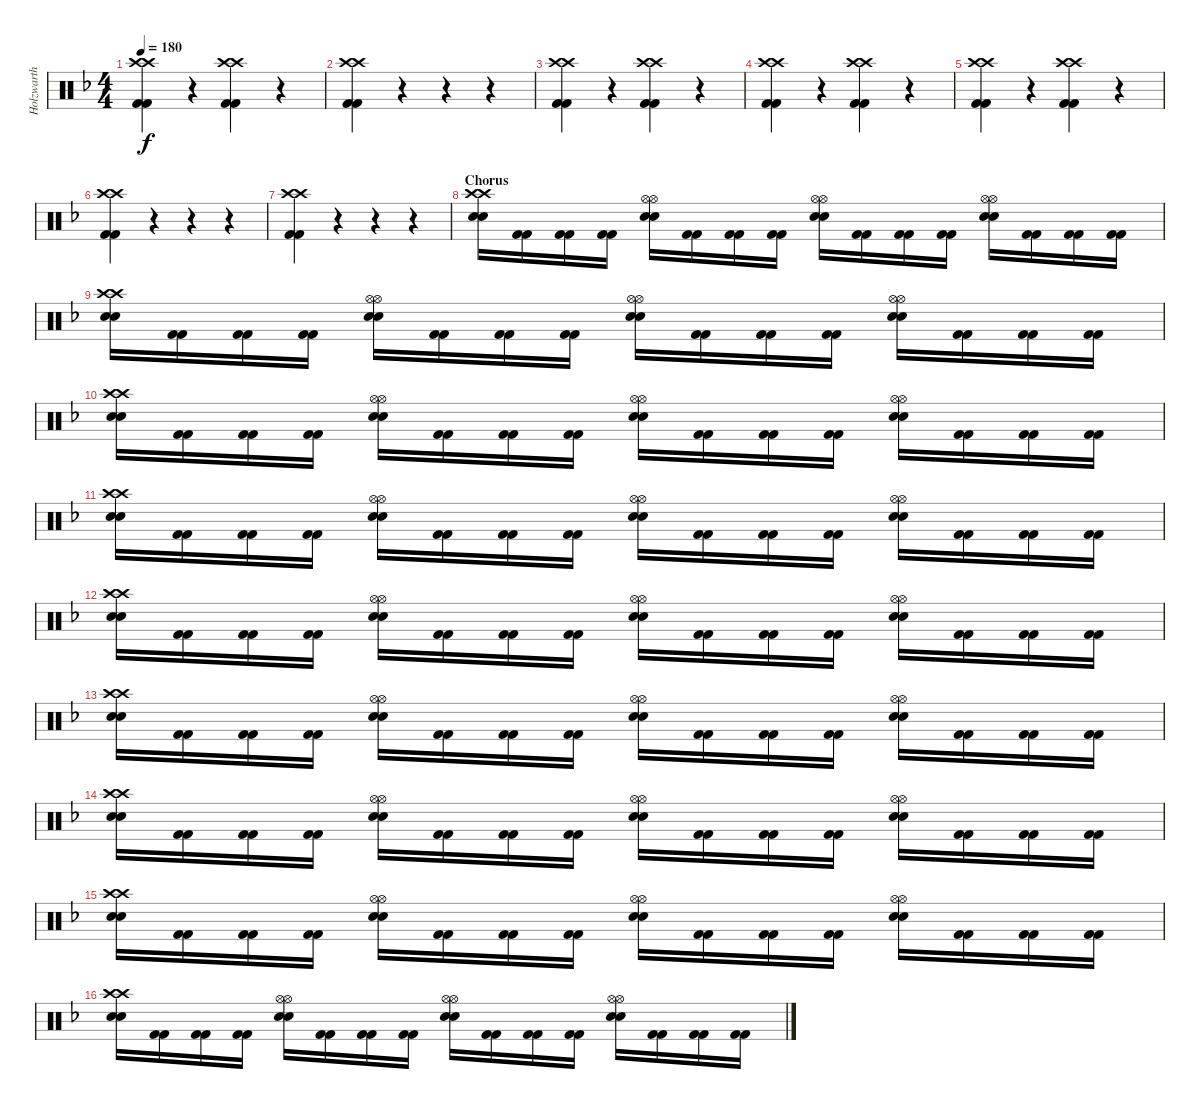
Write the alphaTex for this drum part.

\track ("Holzwarth" "Holzwarth") {instrument percussion}
\staff {score}
\articulation defaults
\ts (4 4)
\tempo 180
\clef neutral
\ks dminor
("Kick (hit) 2" "Kick (hit) 2" "Crash high (hit)" "Crash high (hit)").4{dy f} r.4 ("Kick (hit) 2" "Kick (hit) 2" "Crash high (hit)" "Crash high (hit)").4 r.4 |
("Kick (hit) 2" "Kick (hit) 2" "Crash high (hit)" "Crash high (hit)").4 r.4 r.4 r.4 |
("Kick (hit) 2" "Kick (hit) 2" "Crash high (hit)" "Crash high (hit)").4 r.4 ("Kick (hit) 2" "Kick (hit) 2" "Crash high (hit)" "Crash high (hit)").4 r.4 |
("Kick (hit) 2" "Kick (hit) 2" "Crash high (hit)" "Crash high (hit)").4 r.4 ("Kick (hit) 2" "Kick (hit) 2" "Crash high (hit)" "Crash high (hit)").4 r.4 |
("Kick (hit) 2" "Kick (hit) 2" "Crash high (hit)" "Crash high (hit)").4 r.4 ("Kick (hit) 2" "Kick (hit) 2" "Crash high (hit)" "Crash high (hit)").4 r.4 |
("Kick (hit) 2" "Kick (hit) 2" "Crash high (hit)" "Crash high (hit)").4 r.4 r.4 r.4 |
("Kick (hit) 2" "Kick (hit) 2" "Crash high (hit)" "Crash high (hit)").4 r.4 r.4 r.4 |
\section ("" "Chorus")
("Snare (hit) 2" "Snare (hit) 2" "Crash high (hit)" "Crash high (hit)").16 ("Kick (hit) 2" "Kick (hit) 2").16 ("Kick (hit) 2" "Kick (hit) 2").16 ("Kick (hit) 2" "Kick (hit) 2").16 ("Snare (hit) 2" "Snare (hit) 2" "Hi-Hat (open)" "Hi-Hat (open)").16 ("Kick (hit) 2" "Kick (hit) 2").16 ("Kick (hit) 2" "Kick (hit) 2").16 ("Kick (hit) 2" "Kick (hit) 2").16 ("Snare (hit) 2" "Snare (hit) 2" "Hi-Hat (open)" "Hi-Hat (open)").16 ("Kick (hit) 2" "Kick (hit) 2").16 ("Kick (hit) 2" "Kick (hit) 2").16 ("Kick (hit) 2" "Kick (hit) 2").16 ("Snare (hit) 2" "Snare (hit) 2" "Hi-Hat (open)" "Hi-Hat (open)").16 ("Kick (hit) 2" "Kick (hit) 2").16 ("Kick (hit) 2" "Kick (hit) 2").16 ("Kick (hit) 2" "Kick (hit) 2").16 |
("Snare (hit) 2" "Snare (hit) 2" "Crash high (hit)" "Crash high (hit)").16 ("Kick (hit) 2" "Kick (hit) 2").16 ("Kick (hit) 2" "Kick (hit) 2").16 ("Kick (hit) 2" "Kick (hit) 2").16 ("Snare (hit) 2" "Snare (hit) 2" "Hi-Hat (open)" "Hi-Hat (open)").16 ("Kick (hit) 2" "Kick (hit) 2").16 ("Kick (hit) 2" "Kick (hit) 2").16 ("Kick (hit) 2" "Kick (hit) 2").16 ("Snare (hit) 2" "Snare (hit) 2" "Hi-Hat (open)" "Hi-Hat (open)").16 ("Kick (hit) 2" "Kick (hit) 2").16 ("Kick (hit) 2" "Kick (hit) 2").16 ("Kick (hit) 2" "Kick (hit) 2").16 ("Snare (hit) 2" "Snare (hit) 2" "Hi-Hat (open)" "Hi-Hat (open)").16 ("Kick (hit) 2" "Kick (hit) 2").16 ("Kick (hit) 2" "Kick (hit) 2").16 ("Kick (hit) 2" "Kick (hit) 2").16 |
("Snare (hit) 2" "Snare (hit) 2" "Crash high (hit)" "Crash high (hit)").16 ("Kick (hit) 2" "Kick (hit) 2").16 ("Kick (hit) 2" "Kick (hit) 2").16 ("Kick (hit) 2" "Kick (hit) 2").16 ("Snare (hit) 2" "Snare (hit) 2" "Hi-Hat (open)" "Hi-Hat (open)").16 ("Kick (hit) 2" "Kick (hit) 2").16 ("Kick (hit) 2" "Kick (hit) 2").16 ("Kick (hit) 2" "Kick (hit) 2").16 ("Snare (hit) 2" "Snare (hit) 2" "Hi-Hat (open)" "Hi-Hat (open)").16 ("Kick (hit) 2" "Kick (hit) 2").16 ("Kick (hit) 2" "Kick (hit) 2").16 ("Kick (hit) 2" "Kick (hit) 2").16 ("Snare (hit) 2" "Snare (hit) 2" "Hi-Hat (open)" "Hi-Hat (open)").16 ("Kick (hit) 2" "Kick (hit) 2").16 ("Kick (hit) 2" "Kick (hit) 2").16 ("Kick (hit) 2" "Kick (hit) 2").16 |
("Snare (hit) 2" "Snare (hit) 2" "Crash high (hit)" "Crash high (hit)").16 ("Kick (hit) 2" "Kick (hit) 2").16 ("Kick (hit) 2" "Kick (hit) 2").16 ("Kick (hit) 2" "Kick (hit) 2").16 ("Snare (hit) 2" "Snare (hit) 2" "Hi-Hat (open)" "Hi-Hat (open)").16 ("Kick (hit) 2" "Kick (hit) 2").16 ("Kick (hit) 2" "Kick (hit) 2").16 ("Kick (hit) 2" "Kick (hit) 2").16 ("Snare (hit) 2" "Snare (hit) 2" "Hi-Hat (open)" "Hi-Hat (open)").16 ("Kick (hit) 2" "Kick (hit) 2").16 ("Kick (hit) 2" "Kick (hit) 2").16 ("Kick (hit) 2" "Kick (hit) 2").16 ("Snare (hit) 2" "Snare (hit) 2" "Hi-Hat (open)" "Hi-Hat (open)").16 ("Kick (hit) 2" "Kick (hit) 2").16 ("Kick (hit) 2" "Kick (hit) 2").16 ("Kick (hit) 2" "Kick (hit) 2").16 |
("Snare (hit) 2" "Snare (hit) 2" "Crash high (hit)" "Crash high (hit)").16 ("Kick (hit) 2" "Kick (hit) 2").16 ("Kick (hit) 2" "Kick (hit) 2").16 ("Kick (hit) 2" "Kick (hit) 2").16 ("Snare (hit) 2" "Snare (hit) 2" "Hi-Hat (open)" "Hi-Hat (open)").16 ("Kick (hit) 2" "Kick (hit) 2").16 ("Kick (hit) 2" "Kick (hit) 2").16 ("Kick (hit) 2" "Kick (hit) 2").16 ("Snare (hit) 2" "Snare (hit) 2" "Hi-Hat (open)" "Hi-Hat (open)").16 ("Kick (hit) 2" "Kick (hit) 2").16 ("Kick (hit) 2" "Kick (hit) 2").16 ("Kick (hit) 2" "Kick (hit) 2").16 ("Snare (hit) 2" "Snare (hit) 2" "Hi-Hat (open)" "Hi-Hat (open)").16 ("Kick (hit) 2" "Kick (hit) 2").16 ("Kick (hit) 2" "Kick (hit) 2").16 ("Kick (hit) 2" "Kick (hit) 2").16 |
("Snare (hit) 2" "Snare (hit) 2" "Crash high (hit)" "Crash high (hit)").16 ("Kick (hit) 2" "Kick (hit) 2").16 ("Kick (hit) 2" "Kick (hit) 2").16 ("Kick (hit) 2" "Kick (hit) 2").16 ("Snare (hit) 2" "Snare (hit) 2" "Hi-Hat (open)" "Hi-Hat (open)").16 ("Kick (hit) 2" "Kick (hit) 2").16 ("Kick (hit) 2" "Kick (hit) 2").16 ("Kick (hit) 2" "Kick (hit) 2").16 ("Snare (hit) 2" "Snare (hit) 2" "Hi-Hat (open)" "Hi-Hat (open)").16 ("Kick (hit) 2" "Kick (hit) 2").16 ("Kick (hit) 2" "Kick (hit) 2").16 ("Kick (hit) 2" "Kick (hit) 2").16 ("Snare (hit) 2" "Snare (hit) 2" "Hi-Hat (open)" "Hi-Hat (open)").16 ("Kick (hit) 2" "Kick (hit) 2").16 ("Kick (hit) 2" "Kick (hit) 2").16 ("Kick (hit) 2" "Kick (hit) 2").16 |
("Snare (hit) 2" "Snare (hit) 2" "Crash high (hit)" "Crash high (hit)").16 ("Kick (hit) 2" "Kick (hit) 2").16 ("Kick (hit) 2" "Kick (hit) 2").16 ("Kick (hit) 2" "Kick (hit) 2").16 ("Snare (hit) 2" "Snare (hit) 2" "Hi-Hat (open)" "Hi-Hat (open)").16 ("Kick (hit) 2" "Kick (hit) 2").16 ("Kick (hit) 2" "Kick (hit) 2").16 ("Kick (hit) 2" "Kick (hit) 2").16 ("Snare (hit) 2" "Snare (hit) 2" "Hi-Hat (open)" "Hi-Hat (open)").16 ("Kick (hit) 2" "Kick (hit) 2").16 ("Kick (hit) 2" "Kick (hit) 2").16 ("Kick (hit) 2" "Kick (hit) 2").16 ("Snare (hit) 2" "Snare (hit) 2" "Hi-Hat (open)" "Hi-Hat (open)").16 ("Kick (hit) 2" "Kick (hit) 2").16 ("Kick (hit) 2" "Kick (hit) 2").16 ("Kick (hit) 2" "Kick (hit) 2").16 |
("Snare (hit) 2" "Snare (hit) 2" "Crash high (hit)" "Crash high (hit)").16 ("Kick (hit) 2" "Kick (hit) 2").16 ("Kick (hit) 2" "Kick (hit) 2").16 ("Kick (hit) 2" "Kick (hit) 2").16 ("Snare (hit) 2" "Snare (hit) 2" "Hi-Hat (open)" "Hi-Hat (open)").16 ("Kick (hit) 2" "Kick (hit) 2").16 ("Kick (hit) 2" "Kick (hit) 2").16 ("Kick (hit) 2" "Kick (hit) 2").16 ("Snare (hit) 2" "Snare (hit) 2" "Hi-Hat (open)" "Hi-Hat (open)").16 ("Kick (hit) 2" "Kick (hit) 2").16 ("Kick (hit) 2" "Kick (hit) 2").16 ("Kick (hit) 2" "Kick (hit) 2").16 ("Snare (hit) 2" "Snare (hit) 2" "Hi-Hat (open)" "Hi-Hat (open)").16 ("Kick (hit) 2" "Kick (hit) 2").16 ("Kick (hit) 2" "Kick (hit) 2").16 ("Kick (hit) 2" "Kick (hit) 2").16 |
("Snare (hit) 2" "Snare (hit) 2" "Crash high (hit)" "Crash high (hit)").16 ("Kick (hit) 2" "Kick (hit) 2").16 ("Kick (hit) 2" "Kick (hit) 2").16 ("Kick (hit) 2" "Kick (hit) 2").16 ("Snare (hit) 2" "Snare (hit) 2" "Hi-Hat (open)" "Hi-Hat (open)").16 ("Kick (hit) 2" "Kick (hit) 2").16 ("Kick (hit) 2" "Kick (hit) 2").16 ("Kick (hit) 2" "Kick (hit) 2").16 ("Snare (hit) 2" "Snare (hit) 2" "Hi-Hat (open)" "Hi-Hat (open)").16 ("Kick (hit) 2" "Kick (hit) 2").16 ("Kick (hit) 2" "Kick (hit) 2").16 ("Kick (hit) 2" "Kick (hit) 2").16 ("Snare (hit) 2" "Snare (hit) 2" "Hi-Hat (open)" "Hi-Hat (open)").16 ("Kick (hit) 2" "Kick (hit) 2").16 ("Kick (hit) 2" "Kick (hit) 2").16 ("Kick (hit) 2" "Kick (hit) 2").16
